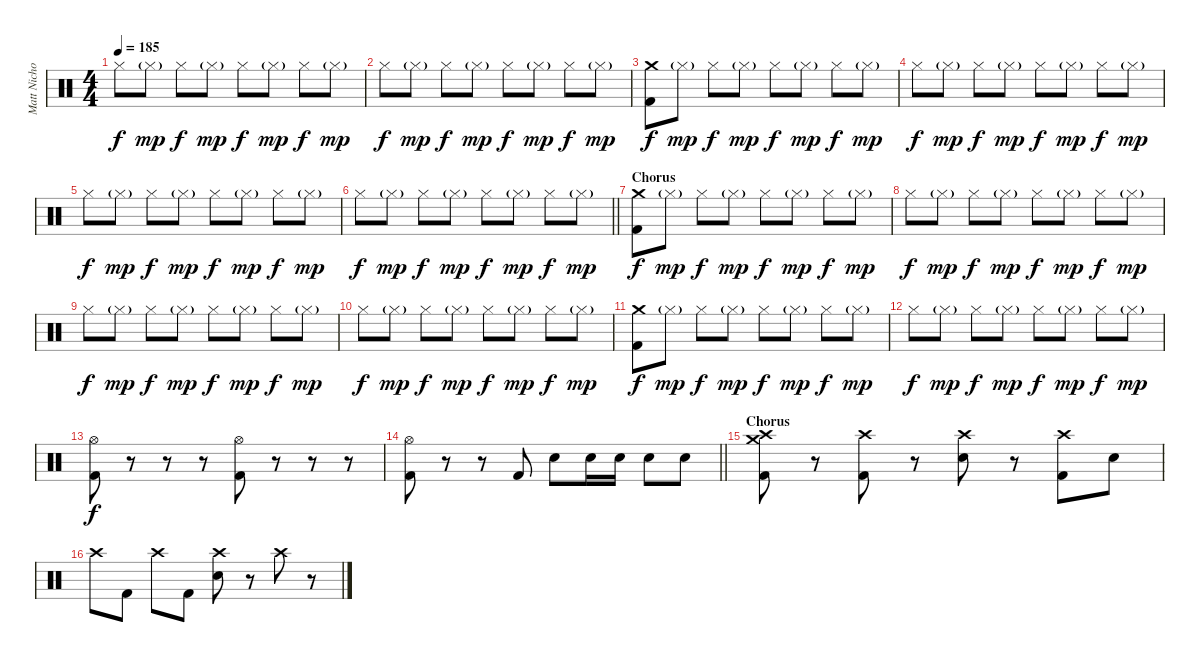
\track ("Matt Nicholls" "Matt Nicho") {instrument percussion}
\staff {score}
\articulation defaults
\ts (4 4)
\tempo 185
\clef neutral
\ks c "Hi-Hat (closed)".8{dy f} "Hi-Hat (closed)"{g}.8{dy mp} "Hi-Hat (closed)".8{dy f} "Hi-Hat (closed)"{g}.8{dy mp} "Hi-Hat (closed)".8{dy f} "Hi-Hat (closed)"{g}.8{dy mp} "Hi-Hat (closed)".8{dy f} "Hi-Hat (closed)"{g}.8{dy mp}
|
"Hi-Hat (closed)".8{dy f} "Hi-Hat (closed)"{g}.8{dy mp} "Hi-Hat (closed)".8{dy f} "Hi-Hat (closed)"{g}.8{dy mp} "Hi-Hat (closed)".8{dy f} "Hi-Hat (closed)"{g}.8{dy mp} "Hi-Hat (closed)".8{dy f} "Hi-Hat (closed)"{g}.8{dy mp} |
("Crash medium (hit)" "Kick (hit) 2").8{dy f} "Hi-Hat (closed)"{g}.8{dy mp} "Hi-Hat (closed)".8{dy f} "Hi-Hat (closed)"{g}.8{dy mp} "Hi-Hat (closed)".8{dy f} "Hi-Hat (closed)"{g}.8{dy mp} "Hi-Hat (closed)".8{dy f} "Hi-Hat (closed)"{g}.8{dy mp} |
"Hi-Hat (closed)".8{dy f} "Hi-Hat (closed)"{g}.8{dy mp} "Hi-Hat (closed)".8{dy f} "Hi-Hat (closed)"{g}.8{dy mp} "Hi-Hat (closed)".8{dy f} "Hi-Hat (closed)"{g}.8{dy mp} "Hi-Hat (closed)".8{dy f} "Hi-Hat (closed)"{g}.8{dy mp} |
"Hi-Hat (closed)".8{dy f} "Hi-Hat (closed)"{g}.8{dy mp} "Hi-Hat (closed)".8{dy f} "Hi-Hat (closed)"{g}.8{dy mp} "Hi-Hat (closed)".8{dy f} "Hi-Hat (closed)"{g}.8{dy mp} "Hi-Hat (closed)".8{dy f} "Hi-Hat (closed)"{g}.8{dy mp} |
\barLineRight lightlight "Hi-Hat (closed)".8{dy f} "Hi-Hat (closed)"{g}.8{dy mp} "Hi-Hat (closed)".8{dy f} "Hi-Hat (closed)"{g}.8{dy mp} "Hi-Hat (closed)".8{dy f} "Hi-Hat (closed)"{g}.8{dy mp} "Hi-Hat (closed)".8{dy f} "Hi-Hat (closed)"{g}.8{dy mp}
|
\section ("" "Chorus")
("Crash medium (hit)" "Kick (hit) 2").8{dy f} "Hi-Hat (closed)"{g}.8{dy mp} "Hi-Hat (closed)".8{dy f} "Hi-Hat (closed)"{g}.8{dy mp} "Hi-Hat (closed)".8{dy f} "Hi-Hat (closed)"{g}.8{dy mp} "Hi-Hat (closed)".8{dy f} "Hi-Hat (closed)"{g}.8{dy mp} |
"Hi-Hat (closed)".8{dy f} "Hi-Hat (closed)"{g}.8{dy mp} "Hi-Hat (closed)".8{dy f} "Hi-Hat (closed)"{g}.8{dy mp} "Hi-Hat (closed)".8{dy f} "Hi-Hat (closed)"{g}.8{dy mp} "Hi-Hat (closed)".8{dy f} "Hi-Hat (closed)"{g}.8{dy mp} |
"Hi-Hat (closed)".8{dy f} "Hi-Hat (closed)"{g}.8{dy mp} "Hi-Hat (closed)".8{dy f} "Hi-Hat (closed)"{g}.8{dy mp} "Hi-Hat (closed)".8{dy f} "Hi-Hat (closed)"{g}.8{dy mp} "Hi-Hat (closed)".8{dy f} "Hi-Hat (closed)"{g}.8{dy mp} |
"Hi-Hat (closed)".8{dy f} "Hi-Hat (closed)"{g}.8{dy mp} "Hi-Hat (closed)".8{dy f} "Hi-Hat (closed)"{g}.8{dy mp} "Hi-Hat (closed)".8{dy f} "Hi-Hat (closed)"{g}.8{dy mp} "Hi-Hat (closed)".8{dy f} "Hi-Hat (closed)"{g}.8{dy mp} |
("Crash medium (hit)" "Kick (hit) 2").8{dy f} "Hi-Hat (closed)"{g}.8{dy mp} "Hi-Hat (closed)".8{dy f} "Hi-Hat (closed)"{g}.8{dy mp} "Hi-Hat (closed)".8{dy f} "Hi-Hat (closed)"{g}.8{dy mp} "Hi-Hat (closed)".8{dy f} "Hi-Hat (closed)"{g}.8{dy mp} |
"Hi-Hat (closed)".8{dy f} "Hi-Hat (closed)"{g}.8{dy mp} "Hi-Hat (closed)".8{dy f} "Hi-Hat (closed)"{g}.8{dy mp} "Hi-Hat (closed)".8{dy f} "Hi-Hat (closed)"{g}.8{dy mp} "Hi-Hat (closed)".8{dy f} "Hi-Hat (closed)"{g}.8{dy mp} |
("Hi-Hat (open)" "Kick (hit) 2").8{dy f} r.8 r.8 r.8 ("Hi-Hat (open)" "Kick (hit) 2").8 r.8 r.8 r.8 |
\barLineRight lightlight
("Hi-Hat (open)" "Kick (hit) 2").8 r.8 r.8 "Kick (hit) 2".8 "Electric Snare (hit)".8 "Electric Snare (hit)".16 "Electric Snare (hit)".16 "Electric Snare (hit)".8 "Electric Snare (hit)".8 |
\section ("" "Chorus")
("Crash medium (hit)" "Crash high (hit)" "Kick (hit) 2").8 r.8 ("Crash high (hit)" "Kick (hit) 2").8 r.8 ("Crash high (hit)" "Electric Snare (hit)").8 r.8 ("Crash high (hit)" "Kick (hit) 2").8 "Electric Snare (hit)".8 |
"Crash high (hit)".8 "Kick (hit) 2".8 "Crash high (hit)".8 "Kick (hit) 2".8 ("Crash high (hit)" "Electric Snare (hit)").8 r.8 "Crash high (hit)".8 r.8
